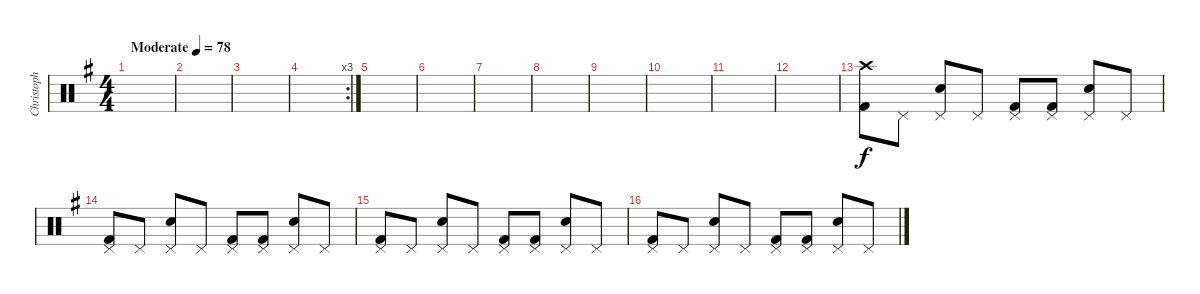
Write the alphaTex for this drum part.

\track ("Christoph" "Christoph") {instrument percussion}
\staff {score}
\articulation defaults
\ts (4 4)
\tempo (78 "Moderate")
\clef neutral
\ks g
|
|
|
\rc 3
|
|
|
|
|
|
|
|
|
("Crash high (hit)" "Kick (hit) 2").8 "Pedal Hi-Hat (hit)".8 ("Pedal Hi-Hat (hit)" "Snare (hit) 2").8 "Pedal Hi-Hat (hit)".8 ("Pedal Hi-Hat (hit)" "Kick (hit) 2").8 ("Pedal Hi-Hat (hit)" "Kick (hit) 2").8 ("Pedal Hi-Hat (hit)" "Snare (hit) 2").8 "Pedal Hi-Hat (hit)".8 |
("Pedal Hi-Hat (hit)" "Kick (hit) 2").8 "Pedal Hi-Hat (hit)".8 ("Pedal Hi-Hat (hit)" "Snare (hit) 2").8 "Pedal Hi-Hat (hit)".8 ("Pedal Hi-Hat (hit)" "Kick (hit) 2").8 ("Pedal Hi-Hat (hit)" "Kick (hit) 2").8 ("Pedal Hi-Hat (hit)" "Snare (hit) 2").8 "Pedal Hi-Hat (hit)".8 |
("Pedal Hi-Hat (hit)" "Kick (hit) 2").8 "Pedal Hi-Hat (hit)".8 ("Pedal Hi-Hat (hit)" "Snare (hit) 2").8 "Pedal Hi-Hat (hit)".8 ("Pedal Hi-Hat (hit)" "Kick (hit) 2").8 ("Pedal Hi-Hat (hit)" "Kick (hit) 2").8 ("Pedal Hi-Hat (hit)" "Snare (hit) 2").8 "Pedal Hi-Hat (hit)".8 |
("Pedal Hi-Hat (hit)" "Kick (hit) 2").8 "Pedal Hi-Hat (hit)".8 ("Pedal Hi-Hat (hit)" "Snare (hit) 2").8 "Pedal Hi-Hat (hit)".8 ("Pedal Hi-Hat (hit)" "Kick (hit) 2").8 ("Pedal Hi-Hat (hit)" "Kick (hit) 2").8 ("Pedal Hi-Hat (hit)" "Snare (hit) 2").8 "Pedal Hi-Hat (hit)".8
